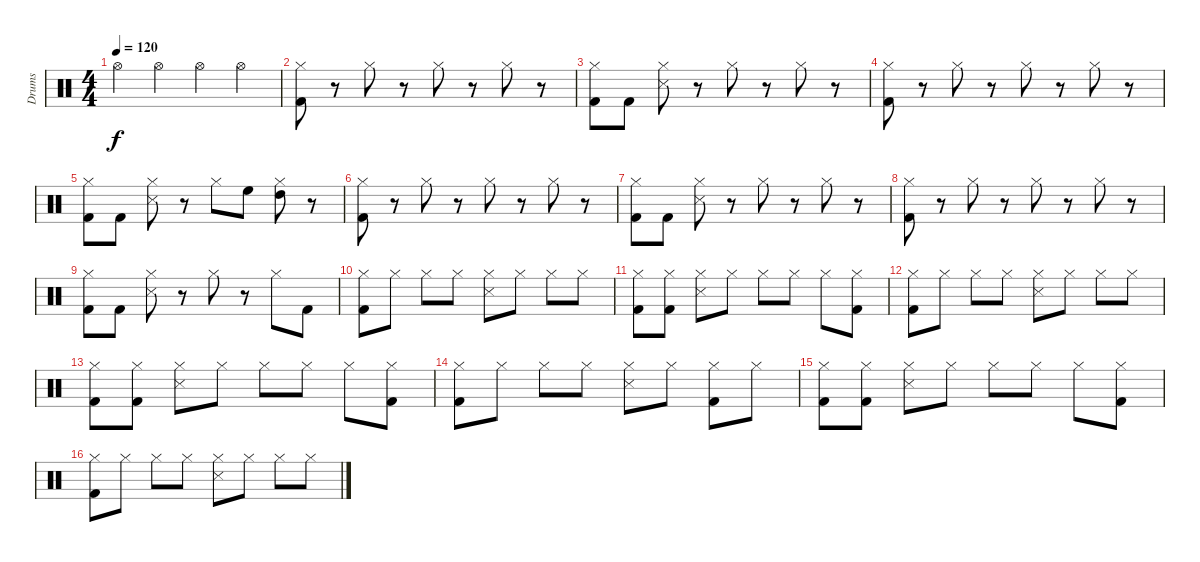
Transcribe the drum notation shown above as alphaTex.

\track ("Drums" "Drums") {instrument percussion}
\staff {score}
\articulation defaults
\ts (4 4)
\tempo 120
\clef neutral
\ks c "Hi-Hat (open)".4{dy f} "Hi-Hat (open)".4 "Hi-Hat (open)".4 "Hi-Hat (open)".4
|
("Hi-Hat (closed)" "Kick (hit) 2").8 r.8 "Hi-Hat (closed)".8 r.8 "Hi-Hat (closed)".8 r.8 "Hi-Hat (closed)".8 r.8 |
("Hi-Hat (closed)" "Kick (hit) 2").8 "Kick (hit) 2".8 ("Hi-Hat (closed)" "Snare (side stick) 3").8 r.8 "Hi-Hat (closed)".8 r.8 "Hi-Hat (closed)".8 r.8 |
("Hi-Hat (closed)" "Kick (hit) 2").8 r.8 "Hi-Hat (closed)".8 r.8 "Hi-Hat (closed)".8 r.8 "Hi-Hat (closed)".8 r.8 |
("Hi-Hat (closed)" "Kick (hit) 2").8 "Kick (hit) 2".8 ("Hi-Hat (closed)" "Snare (side stick) 3").8 r.8 "Hi-Hat (closed)".8 "High Floor Tom (hit)".8 ("Hi-Hat (closed)" "High Tom (hit)").8 r.8 |
("Hi-Hat (closed)" "Kick (hit) 2").8 r.8 "Hi-Hat (closed)".8 r.8 "Hi-Hat (closed)".8 r.8 "Hi-Hat (closed)".8 r.8 |
("Hi-Hat (closed)" "Kick (hit) 2").8 "Kick (hit) 2".8 ("Hi-Hat (closed)" "Snare (side stick) 3").8 r.8 "Hi-Hat (closed)".8 r.8 "Hi-Hat (closed)".8 r.8 |
("Hi-Hat (closed)" "Kick (hit) 2").8 r.8 "Hi-Hat (closed)".8 r.8 "Hi-Hat (closed)".8 r.8 "Hi-Hat (closed)".8 r.8 |
("Hi-Hat (closed)" "Kick (hit) 2").8 "Kick (hit) 2".8 ("Hi-Hat (closed)" "Snare (side stick) 3").8 r.8 "Hi-Hat (closed)".8 r.8 "Hi-Hat (closed)".8 "Kick (hit) 2".8 |
("Hi-Hat (closed)" "Kick (hit) 2").8 "Hi-Hat (closed)".8 "Hi-Hat (closed)".8 "Hi-Hat (closed)".8 ("Hi-Hat (closed)" "Snare (side stick) 3").8 "Hi-Hat (closed)".8 "Hi-Hat (closed)".8 "Hi-Hat (closed)".8 |
("Hi-Hat (closed)" "Kick (hit) 2").8 ("Hi-Hat (closed)" "Kick (hit) 2").8 ("Hi-Hat (closed)" "Snare (side stick) 3").8 "Hi-Hat (closed)".8 "Hi-Hat (closed)".8 "Hi-Hat (closed)".8 "Hi-Hat (closed)".8 ("Hi-Hat (closed)" "Kick (hit) 2").8 |
("Hi-Hat (closed)" "Kick (hit) 2").8 "Hi-Hat (closed)".8 "Hi-Hat (closed)".8 "Hi-Hat (closed)".8 ("Hi-Hat (closed)" "Snare (side stick) 3").8 "Hi-Hat (closed)".8 "Hi-Hat (closed)".8 "Hi-Hat (closed)".8 |
("Hi-Hat (closed)" "Kick (hit) 2").8 ("Hi-Hat (closed)" "Kick (hit) 2").8 ("Hi-Hat (closed)" "Snare (side stick) 3").8 "Hi-Hat (closed)".8 "Hi-Hat (closed)".8 "Hi-Hat (closed)".8 "Hi-Hat (closed)".8 ("Hi-Hat (closed)" "Kick (hit) 2").8 |
("Hi-Hat (closed)" "Kick (hit) 2").8 "Hi-Hat (closed)".8 "Hi-Hat (closed)".8 "Hi-Hat (closed)".8 ("Hi-Hat (closed)" "Snare (side stick) 3").8 "Hi-Hat (closed)".8 ("Hi-Hat (closed)" "Kick (hit) 2").8 "Hi-Hat (closed)".8 |
("Hi-Hat (closed)" "Kick (hit) 2").8 ("Hi-Hat (closed)" "Kick (hit) 2").8 ("Hi-Hat (closed)" "Snare (side stick) 3").8 "Hi-Hat (closed)".8 "Hi-Hat (closed)".8 "Hi-Hat (closed)".8 "Hi-Hat (closed)".8 ("Hi-Hat (closed)" "Kick (hit) 2").8 |
("Hi-Hat (closed)" "Kick (hit) 2").8 "Hi-Hat (closed)".8 "Hi-Hat (closed)".8 "Hi-Hat (closed)".8 ("Hi-Hat (closed)" "Snare (side stick) 3").8 "Hi-Hat (closed)".8 "Hi-Hat (closed)".8 "Hi-Hat (closed)".8
